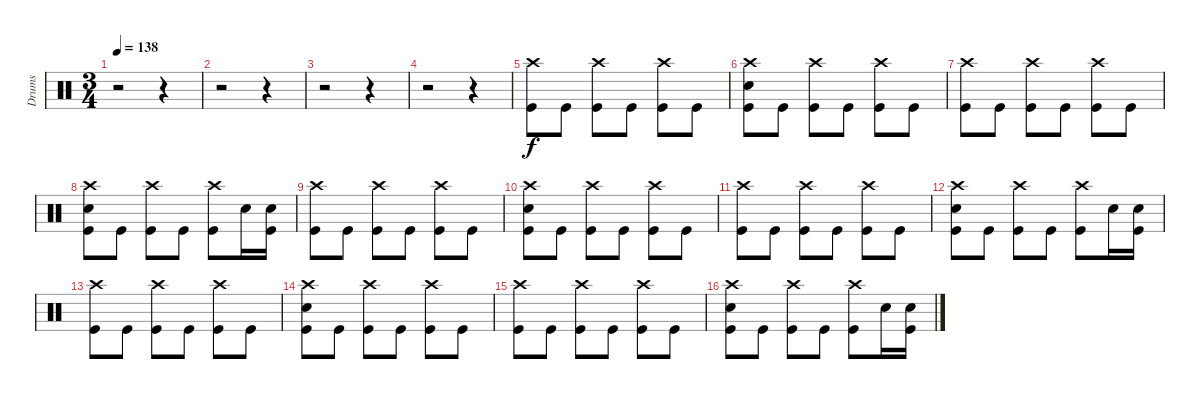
\track ("Drums" "Drums") {instrument percussion}
\staff {score}
\articulation defaults
\ts (3 4)
\tempo 138
\clef neutral
\ks c
r.2{dy f} r.4 |
r.2 r.4 |
r.2 r.4 |
r.2 r.4 |
("Crash high (hit)" "Kick (hit)").8 "Kick (hit)".8 ("Crash high (hit)" "Kick (hit)").8 "Kick (hit)".8 ("Crash high (hit)" "Kick (hit)").8 "Kick (hit)".8 |
("Crash high (hit)" "Snare (hit) 2" "Kick (hit)").8 "Kick (hit)".8 ("Crash high (hit)" "Kick (hit)").8 "Kick (hit)".8 ("Crash high (hit)" "Kick (hit)").8 "Kick (hit)".8 |
("Crash high (hit)" "Kick (hit)").8 "Kick (hit)".8 ("Crash high (hit)" "Kick (hit)").8 "Kick (hit)".8 ("Crash high (hit)" "Kick (hit)").8 "Kick (hit)".8 |
("Crash high (hit)" "Snare (hit) 2" "Kick (hit)").8 "Kick (hit)".8 ("Crash high (hit)" "Kick (hit)").8 "Kick (hit)".8 ("Crash high (hit)" "Kick (hit)").8 "Snare (hit) 2".16 ("Snare (hit) 2" "Kick (hit)").16 |
("Crash high (hit)" "Kick (hit)").8 "Kick (hit)".8 ("Crash high (hit)" "Kick (hit)").8 "Kick (hit)".8 ("Crash high (hit)" "Kick (hit)").8 "Kick (hit)".8 |
("Crash high (hit)" "Snare (hit) 2" "Kick (hit)").8 "Kick (hit)".8 ("Crash high (hit)" "Kick (hit)").8 "Kick (hit)".8 ("Crash high (hit)" "Kick (hit)").8 "Kick (hit)".8 |
("Crash high (hit)" "Kick (hit)").8 "Kick (hit)".8 ("Crash high (hit)" "Kick (hit)").8 "Kick (hit)".8 ("Crash high (hit)" "Kick (hit)").8 "Kick (hit)".8 |
("Crash high (hit)" "Snare (hit) 2" "Kick (hit)").8 "Kick (hit)".8 ("Crash high (hit)" "Kick (hit)").8 "Kick (hit)".8 ("Crash high (hit)" "Kick (hit)").8 "Snare (hit) 2".16 ("Snare (hit) 2" "Kick (hit)").16 |
("Crash high (hit)" "Kick (hit)").8 "Kick (hit)".8 ("Crash high (hit)" "Kick (hit)").8 "Kick (hit)".8 ("Crash high (hit)" "Kick (hit)").8 "Kick (hit)".8 |
("Crash high (hit)" "Snare (hit) 2" "Kick (hit)").8 "Kick (hit)".8 ("Crash high (hit)" "Kick (hit)").8 "Kick (hit)".8 ("Crash high (hit)" "Kick (hit)").8 "Kick (hit)".8 |
("Crash high (hit)" "Kick (hit)").8 "Kick (hit)".8 ("Crash high (hit)" "Kick (hit)").8 "Kick (hit)".8 ("Crash high (hit)" "Kick (hit)").8 "Kick (hit)".8 |
("Crash high (hit)" "Snare (hit) 2" "Kick (hit)").8 "Kick (hit)".8 ("Crash high (hit)" "Kick (hit)").8 "Kick (hit)".8 ("Crash high (hit)" "Kick (hit)").8 "Snare (hit) 2".16 ("Snare (hit) 2" "Kick (hit)").16
